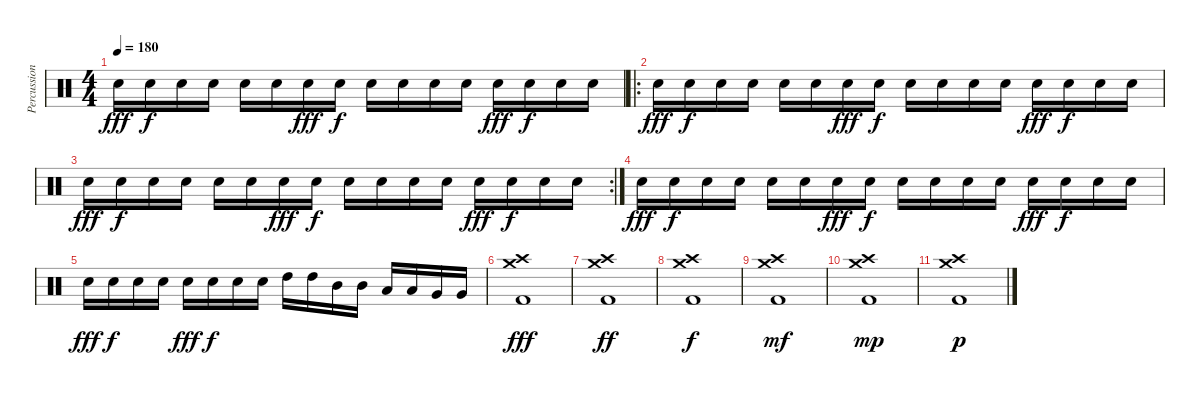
\track ("Percussion" "Percussion") {instrument percussion}
\staff {score}
\articulation defaults
\ts (4 4)
\tempo 180
\clef neutral
\ks c "Snare (hit) 2".16{dy fff} "Snare (hit) 2".16{dy f} "Snare (hit) 2".16 "Snare (hit) 2".16 "Snare (hit) 2".16 "Snare (hit) 2".16 "Snare (hit) 2".16{dy fff} "Snare (hit) 2".16{dy f} "Snare (hit) 2".16 "Snare (hit) 2".16 "Snare (hit) 2".16 "Snare (hit) 2".16 "Snare (hit) 2".16{dy fff} "Snare (hit) 2".16{dy f} "Snare (hit) 2".16 "Snare (hit) 2".16
|
\ro "Snare (hit) 2".16{dy fff} "Snare (hit) 2".16{dy f} "Snare (hit) 2".16 "Snare (hit) 2".16 "Snare (hit) 2".16 "Snare (hit) 2".16 "Snare (hit) 2".16{dy fff} "Snare (hit) 2".16{dy f} "Snare (hit) 2".16 "Snare (hit) 2".16 "Snare (hit) 2".16 "Snare (hit) 2".16 "Snare (hit) 2".16{dy fff} "Snare (hit) 2".16{dy f} "Snare (hit) 2".16 "Snare (hit) 2".16
|
\rc 2 "Snare (hit) 2".16{dy fff} "Snare (hit) 2".16{dy f} "Snare (hit) 2".16 "Snare (hit) 2".16 "Snare (hit) 2".16 "Snare (hit) 2".16 "Snare (hit) 2".16{dy fff} "Snare (hit) 2".16{dy f} "Snare (hit) 2".16 "Snare (hit) 2".16 "Snare (hit) 2".16 "Snare (hit) 2".16 "Snare (hit) 2".16{dy fff} "Snare (hit) 2".16{dy f} "Snare (hit) 2".16 "Snare (hit) 2".16
|
"Snare (hit) 2".16{dy fff} "Snare (hit) 2".16{dy f} "Snare (hit) 2".16 "Snare (hit) 2".16 "Snare (hit) 2".16 "Snare (hit) 2".16 "Snare (hit) 2".16{dy fff} "Snare (hit) 2".16{dy f} "Snare (hit) 2".16 "Snare (hit) 2".16 "Snare (hit) 2".16 "Snare (hit) 2".16 "Snare (hit) 2".16{dy fff} "Snare (hit) 2".16{dy f} "Snare (hit) 2".16 "Snare (hit) 2".16 |
"Snare (hit) 2".16{dy fff} "Snare (hit) 2".16{dy f} "Snare (hit) 2".16 "Snare (hit) 2".16 "Snare (hit) 2".16{dy fff} "Snare (hit) 2".16{dy f} "Snare (hit) 2".16 "Snare (hit) 2".16 "High Tom (hit)".16 "High Tom (hit)".16 "Mid Tom (hit)".16 "Mid Tom (hit)".16 "Low Tom (hit)".16 "Low Tom (hit)".16 "Very Low Tom (hit)".16 "Very Low Tom (hit)".16 |
("Crash high (hit)" "Crash medium (hit)" "Kick (hit) 2").1{dy fff} |
("Crash high (hit)" "Crash medium (hit)" "Kick (hit) 2").1{dy ff} |
("Crash high (hit)" "Crash medium (hit)" "Kick (hit) 2").1{dy f} |
("Crash high (hit)" "Crash medium (hit)" "Kick (hit) 2").1{dy mf} |
("Crash high (hit)" "Crash medium (hit)" "Kick (hit) 2").1{dy mp} |
("Crash high (hit)" "Crash medium (hit)" "Kick (hit) 2").1{dy p}
